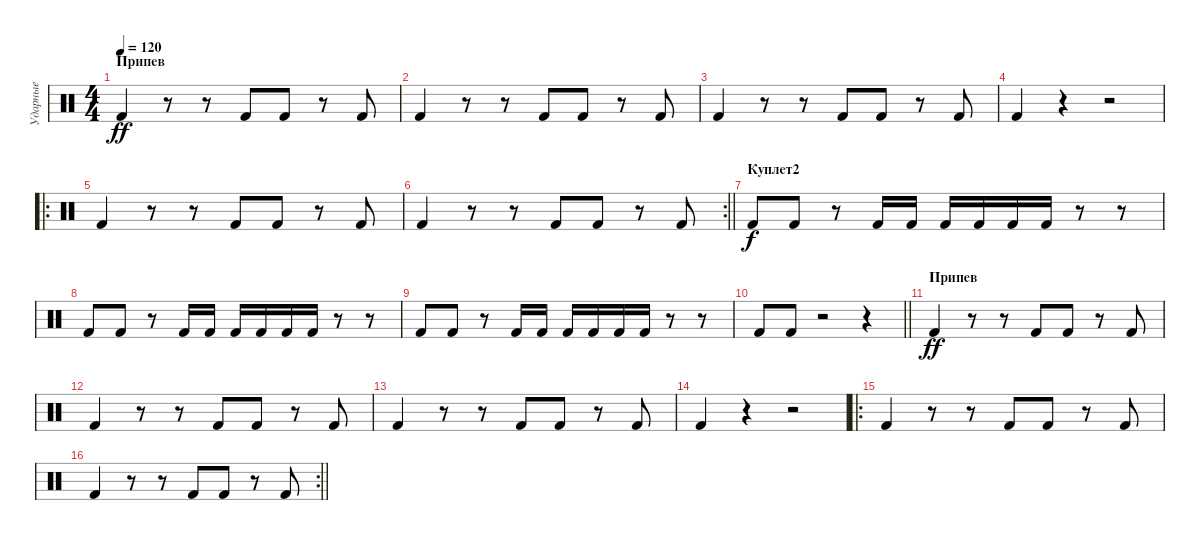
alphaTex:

\track ("Ударные" "Ударные") {instrument percussion}
\staff {score}
\articulation defaults
\ts (4 4)
\section ("" "Припев")
\tempo 120
\clef neutral
\ks c "Kick (hit) 2".4{dy ff}
r.8 r.8 "Kick (hit) 2".8 "Kick (hit) 2".8 r.8 "Kick (hit) 2".8 |
"Kick (hit) 2".4 r.8 r.8 "Kick (hit) 2".8 "Kick (hit) 2".8 r.8 "Kick (hit) 2".8 |
"Kick (hit) 2".4 r.8 r.8 "Kick (hit) 2".8 "Kick (hit) 2".8 r.8 "Kick (hit) 2".8 |
"Kick (hit) 2".4 r.4 r.2 |
\ro "Kick (hit) 2".4
r.8 r.8 "Kick (hit) 2".8 "Kick (hit) 2".8 r.8 "Kick (hit) 2".8 |
\rc 2
\barLineRight lightlight "Kick (hit) 2".4
r.8 r.8 "Kick (hit) 2".8 "Kick (hit) 2".8 r.8 "Kick (hit) 2".8 |
\section ("" "Куплет2")
"Kick (hit) 2".8{dy f} "Kick (hit) 2".8 r.8 "Kick (hit) 2".16 "Kick (hit) 2".16 "Kick (hit) 2".16 "Kick (hit) 2".16 "Kick (hit) 2".16 "Kick (hit) 2".16 r.8 r.8 |
"Kick (hit) 2".8 "Kick (hit) 2".8 r.8 "Kick (hit) 2".16 "Kick (hit) 2".16 "Kick (hit) 2".16 "Kick (hit) 2".16 "Kick (hit) 2".16 "Kick (hit) 2".16 r.8 r.8 |
"Kick (hit) 2".8 "Kick (hit) 2".8 r.8 "Kick (hit) 2".16 "Kick (hit) 2".16 "Kick (hit) 2".16 "Kick (hit) 2".16 "Kick (hit) 2".16 "Kick (hit) 2".16 r.8 r.8 |
\barLineRight lightlight "Kick (hit) 2".8 "Kick (hit) 2".8
r.2 r.4 |
\section ("" "Припев")
"Kick (hit) 2".4{dy ff} r.8 r.8 "Kick (hit) 2".8 "Kick (hit) 2".8 r.8 "Kick (hit) 2".8 |
"Kick (hit) 2".4 r.8 r.8 "Kick (hit) 2".8 "Kick (hit) 2".8 r.8 "Kick (hit) 2".8 |
"Kick (hit) 2".4 r.8 r.8 "Kick (hit) 2".8 "Kick (hit) 2".8 r.8 "Kick (hit) 2".8 |
"Kick (hit) 2".4 r.4 r.2 |
\ro "Kick (hit) 2".4
r.8 r.8 "Kick (hit) 2".8 "Kick (hit) 2".8 r.8 "Kick (hit) 2".8 |
\rc 2
\barLineRight lightlight "Kick (hit) 2".4
r.8 r.8 "Kick (hit) 2".8 "Kick (hit) 2".8 r.8 "Kick (hit) 2".8
